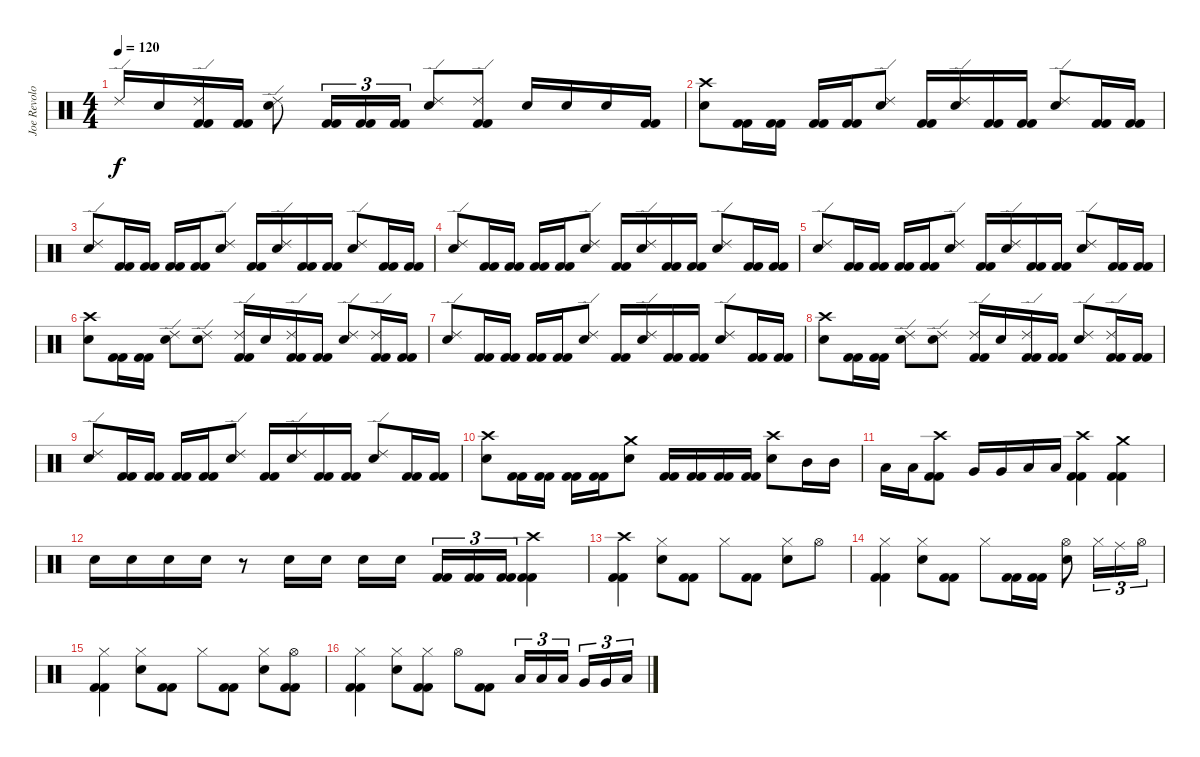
\track ("Joe Revolo" "Joe Revolo") {instrument percussion}
\staff {score}
\articulation defaults
\ts (4 4)
\tempo 120
\clef neutral
\ks c "Ride (edge) 2".16{dy f} "Electric Snare (hit)".16
("Ride (edge) 2" "Kick (hit) 2" "Kick (hit) 2").16 ("Kick (hit) 2" "Kick (hit) 2").16 ("Ride (edge) 2" "Electric Snare (hit)").8 ("Kick (hit) 2" "Kick (hit) 2").16{tu (3 2)} ("Kick (hit) 2" "Kick (hit) 2").16{tu (3 2)} ("Kick (hit) 2" "Kick (hit) 2").16{tu (3 2)} ("Ride (edge) 2" "Electric Snare (hit)").8 ("Ride (edge) 2" "Kick (hit) 2" "Kick (hit) 2").8 "Electric Snare (hit)".16 "Electric Snare (hit)".16 "Electric Snare (hit)".16 ("Kick (hit) 2" "Kick (hit) 2").16 |
("Crash high (hit)" "Electric Snare (hit)").8 ("Kick (hit) 2" "Kick (hit) 2").16 ("Kick (hit) 2" "Kick (hit) 2").16 ("Kick (hit) 2" "Kick (hit) 2").16 ("Kick (hit) 2" "Kick (hit) 2").16 ("Ride (edge) 2" "Electric Snare (hit)").8 ("Kick (hit) 2" "Kick (hit) 2").16 ("Ride (edge) 2" "Electric Snare (hit)").16 ("Kick (hit) 2" "Kick (hit) 2").16 ("Kick (hit) 2" "Kick (hit) 2").16 ("Ride (edge) 2" "Electric Snare (hit)").8 ("Kick (hit) 2" "Kick (hit) 2").16 ("Kick (hit) 2" "Kick (hit) 2").16 |
("Ride (edge) 2" "Electric Snare (hit)").8 ("Kick (hit) 2" "Kick (hit) 2").16 ("Kick (hit) 2" "Kick (hit) 2").16 ("Kick (hit) 2" "Kick (hit) 2").16 ("Kick (hit) 2" "Kick (hit) 2").16 ("Ride (edge) 2" "Electric Snare (hit)").8 ("Kick (hit) 2" "Kick (hit) 2").16 ("Ride (edge) 2" "Electric Snare (hit)").16 ("Kick (hit) 2" "Kick (hit) 2").16 ("Kick (hit) 2" "Kick (hit) 2").16 ("Ride (edge) 2" "Electric Snare (hit)").8 ("Kick (hit) 2" "Kick (hit) 2").16 ("Kick (hit) 2" "Kick (hit) 2").16 |
("Ride (edge) 2" "Electric Snare (hit)").8 ("Kick (hit) 2" "Kick (hit) 2").16 ("Kick (hit) 2" "Kick (hit) 2").16 ("Kick (hit) 2" "Kick (hit) 2").16 ("Kick (hit) 2" "Kick (hit) 2").16 ("Ride (edge) 2" "Electric Snare (hit)").8 ("Kick (hit) 2" "Kick (hit) 2").16 ("Ride (edge) 2" "Electric Snare (hit)").16 ("Kick (hit) 2" "Kick (hit) 2").16 ("Kick (hit) 2" "Kick (hit) 2").16 ("Ride (edge) 2" "Electric Snare (hit)").8 ("Kick (hit) 2" "Kick (hit) 2").16 ("Kick (hit) 2" "Kick (hit) 2").16 |
("Ride (edge) 2" "Electric Snare (hit)").8 ("Kick (hit) 2" "Kick (hit) 2").16 ("Kick (hit) 2" "Kick (hit) 2").16 ("Kick (hit) 2" "Kick (hit) 2").16 ("Kick (hit) 2" "Kick (hit) 2").16 ("Ride (edge) 2" "Electric Snare (hit)").8 ("Kick (hit) 2" "Kick (hit) 2").16 ("Ride (edge) 2" "Electric Snare (hit)").16 ("Kick (hit) 2" "Kick (hit) 2").16 ("Kick (hit) 2" "Kick (hit) 2").16 ("Ride (edge) 2" "Electric Snare (hit)").8 ("Kick (hit) 2" "Kick (hit) 2").16 ("Kick (hit) 2" "Kick (hit) 2").16 |
("Crash high (hit)" "Electric Snare (hit)").8 ("Kick (hit) 2" "Kick (hit) 2").16 ("Kick (hit) 2" "Kick (hit) 2").16 ("Ride (edge) 2" "Electric Snare (hit)").8 ("Ride (edge) 2" "Electric Snare (hit)").8 ("Ride (edge) 2" "Kick (hit) 2" "Kick (hit) 2").16 "Electric Snare (hit)".16 ("Ride (edge) 2" "Kick (hit) 2" "Kick (hit) 2").16 ("Kick (hit) 2" "Kick (hit) 2").16 ("Ride (edge) 2" "Electric Snare (hit)").8 ("Ride (edge) 2" "Kick (hit) 2" "Kick (hit) 2").16 ("Kick (hit) 2" "Kick (hit) 2").16 |
("Ride (edge) 2" "Electric Snare (hit)").8 ("Kick (hit) 2" "Kick (hit) 2").16 ("Kick (hit) 2" "Kick (hit) 2").16 ("Kick (hit) 2" "Kick (hit) 2").16 ("Kick (hit) 2" "Kick (hit) 2").16 ("Ride (edge) 2" "Electric Snare (hit)").8 ("Kick (hit) 2" "Kick (hit) 2").16 ("Ride (edge) 2" "Electric Snare (hit)").16 ("Kick (hit) 2" "Kick (hit) 2").16 ("Kick (hit) 2" "Kick (hit) 2").16 ("Ride (edge) 2" "Electric Snare (hit)").8 ("Kick (hit) 2" "Kick (hit) 2").16 ("Kick (hit) 2" "Kick (hit) 2").16 |
("Crash high (hit)" "Electric Snare (hit)").8 ("Kick (hit) 2" "Kick (hit) 2").16 ("Kick (hit) 2" "Kick (hit) 2").16 ("Ride (edge) 2" "Electric Snare (hit)").8 ("Ride (edge) 2" "Electric Snare (hit)").8 ("Ride (edge) 2" "Kick (hit) 2" "Kick (hit) 2").16 "Electric Snare (hit)".16 ("Ride (edge) 2" "Kick (hit) 2" "Kick (hit) 2").16 ("Kick (hit) 2" "Kick (hit) 2").16 ("Ride (edge) 2" "Electric Snare (hit)").8 ("Ride (edge) 2" "Kick (hit) 2" "Kick (hit) 2").16 ("Kick (hit) 2" "Kick (hit) 2").16 |
("Ride (edge) 2" "Electric Snare (hit)").8 ("Kick (hit) 2" "Kick (hit) 2").16 ("Kick (hit) 2" "Kick (hit) 2").16 ("Kick (hit) 2" "Kick (hit) 2").16 ("Kick (hit) 2" "Kick (hit) 2").16 ("Ride (edge) 2" "Electric Snare (hit)").8 ("Kick (hit) 2" "Kick (hit) 2").16 ("Ride (edge) 2" "Electric Snare (hit)").16 ("Kick (hit) 2" "Kick (hit) 2").16 ("Kick (hit) 2" "Kick (hit) 2").16 ("Ride (edge) 2" "Electric Snare (hit)").8 ("Kick (hit) 2" "Kick (hit) 2").16 ("Kick (hit) 2" "Kick (hit) 2").16 |
("Crash high (hit)" "Electric Snare (hit)").8 ("Kick (hit) 2" "Kick (hit) 2").16 ("Kick (hit) 2" "Kick (hit) 2").16 ("Kick (hit) 2" "Kick (hit) 2").16 ("Kick (hit) 2" "Kick (hit) 2").16 ("Crash medium (hit)" "Electric Snare (hit)").8 ("Kick (hit) 2" "Kick (hit) 2").16 ("Kick (hit) 2" "Kick (hit) 2").16 ("Kick (hit) 2" "Kick (hit) 2").16 ("Kick (hit) 2" "Kick (hit) 2").16 ("Crash high (hit)" "Electric Snare (hit)").8 "Mid Tom (hit)".16 "Mid Tom (hit)".16 |
"Low Tom (hit)".16 "Low Tom (hit)".16 ("Crash high (hit)" "Kick (hit) 2" "Kick (hit) 2").8 "Very Low Tom (hit)".16 "Very Low Tom (hit)".16 "Low Floor Tom (hit)".16 "Low Floor Tom (hit)".16 ("Crash high (hit)" "Kick (hit) 2" "Kick (hit) 2").4 ("Crash medium (hit)" "Kick (hit) 2" "Kick (hit) 2").4 |
"Electric Snare (hit)".16 "Electric Snare (hit)".16 "Electric Snare (hit)".16 "Electric Snare (hit)".16 r.8 "Electric Snare (hit)".16 "Electric Snare (hit)".16 "Electric Snare (hit)".16 "Electric Snare (hit)".16{beam splitsecondary} ("Kick (hit) 2" "Kick (hit) 2").16{tu (3 2)} ("Kick (hit) 2" "Kick (hit) 2").16{tu (3 2)} ("Kick (hit) 2" "Kick (hit) 2").16{tu (3 2)} ("Crash high (hit)" "Kick (hit) 2" "Kick (hit) 2").4 |
("Crash high (hit)" "Kick (hit) 2" "Kick (hit) 2").4 ("Hi-Hat (closed)" "Electric Snare (hit)").8 ("Kick (hit) 2" "Kick (hit) 2").8 "Hi-Hat (closed)".8 ("Kick (hit) 2" "Kick (hit) 2").8 ("Hi-Hat (closed)" "Electric Snare (hit)").8 "Hi-Hat (open)".8 |
("Hi-Hat (closed)" "Kick (hit) 2" "Kick (hit) 2").4 ("Hi-Hat (closed)" "Electric Snare (hit)").8 ("Kick (hit) 2" "Kick (hit) 2").8 "Hi-Hat (closed)".8 ("Kick (hit) 2" "Kick (hit) 2").16 ("Kick (hit) 2" "Kick (hit) 2").16 ("Hi-Hat (open)" "Electric Snare (hit)").8 "Hi-Hat (closed)".16{tu (3 2)} "Ride (middle)".16{tu (3 2)} "Hi-Hat (open)".16{tu (3 2)} |
("Hi-Hat (closed)" "Kick (hit) 2" "Kick (hit) 2").4 ("Hi-Hat (closed)" "Electric Snare (hit)").8 ("Kick (hit) 2" "Kick (hit) 2").8 "Hi-Hat (closed)".8 ("Kick (hit) 2" "Kick (hit) 2").8 ("Hi-Hat (closed)" "Electric Snare (hit)").8 ("Hi-Hat (open)" "Kick (hit) 2" "Kick (hit) 2").8 |
("Hi-Hat (closed)" "Kick (hit) 2" "Kick (hit) 2").4 ("Hi-Hat (closed)" "Electric Snare (hit)").8 ("Hi-Hat (closed)" "Kick (hit) 2" "Kick (hit) 2").8 "Hi-Hat (open)".8 ("Kick (hit) 2" "Kick (hit) 2").8 "Low Tom (hit)".16{tu (3 2)} "Low Tom (hit)".16{tu (3 2)} "Low Tom (hit)".16{tu (3 2) beam splitsecondary} "Very Low Tom (hit)".16{tu (3 2)} "Very Low Tom (hit)".16{tu (3 2)} "Low Floor Tom (hit)".16{tu (3 2)}
